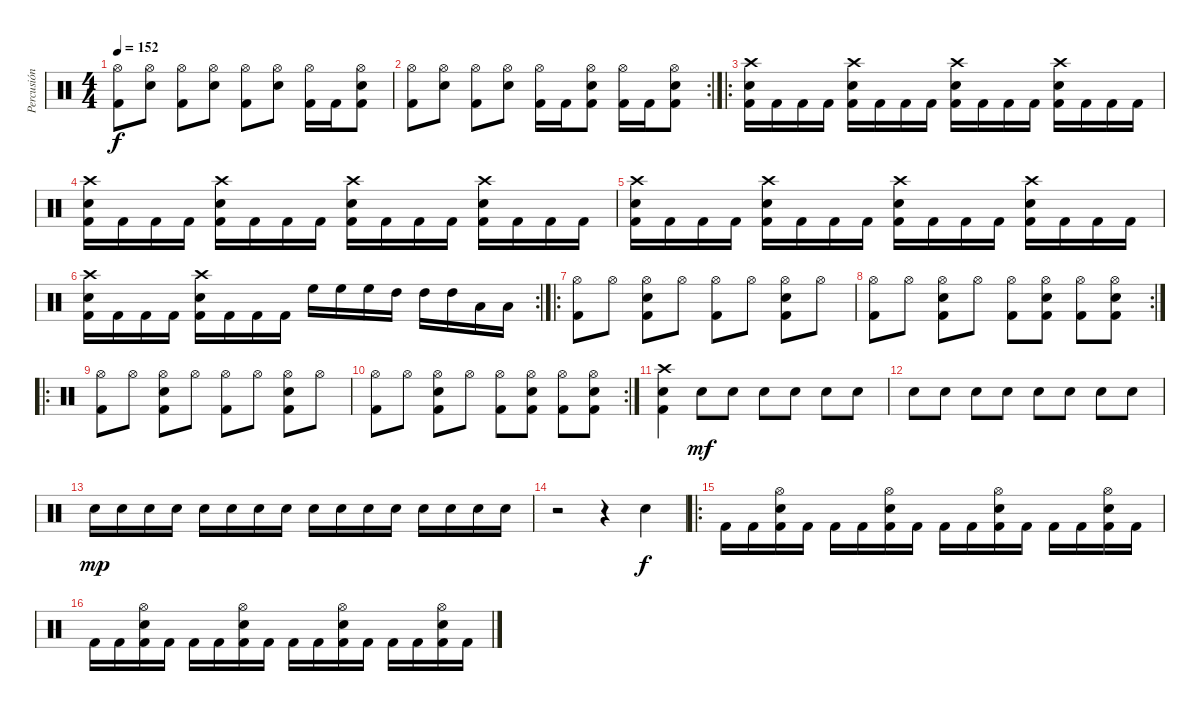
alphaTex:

\track ("Percusión" "Percusión") {instrument percussion}
\staff {score}
\articulation defaults
\ts (4 4)
\tempo 152
\clef neutral
\ks c
("Hi-Hat (open)" "Kick (hit) 2").8{dy f} ("Hi-Hat (open)" "Snare (hit) 2").8 ("Hi-Hat (open)" "Kick (hit) 2").8 ("Hi-Hat (open)" "Snare (hit) 2").8 ("Hi-Hat (open)" "Kick (hit) 2").8 ("Hi-Hat (open)" "Snare (hit) 2").8 ("Hi-Hat (open)" "Kick (hit) 2").16 "Kick (hit) 2".16 ("Hi-Hat (open)" "Snare (hit) 2" "Kick (hit) 2").8 |
\rc 2
("Hi-Hat (open)" "Kick (hit) 2").8 ("Hi-Hat (open)" "Snare (hit) 2").8 ("Hi-Hat (open)" "Kick (hit) 2").8 ("Hi-Hat (open)" "Snare (hit) 2").8 ("Hi-Hat (open)" "Kick (hit) 2").16 "Kick (hit) 2".16 ("Hi-Hat (open)" "Snare (hit) 2" "Kick (hit) 2").8 ("Hi-Hat (open)" "Kick (hit) 2").16 "Kick (hit) 2".16 ("Hi-Hat (open)" "Snare (hit) 2" "Kick (hit) 2").8 |
\ro
("Crash high (hit)" "Snare (hit) 2" "Kick (hit) 2").16 "Kick (hit) 2".16 "Kick (hit) 2".16 "Kick (hit) 2".16 ("Crash high (hit)" "Snare (hit) 2" "Kick (hit) 2").16 "Kick (hit) 2".16 "Kick (hit) 2".16 "Kick (hit) 2".16 ("Crash high (hit)" "Snare (hit) 2" "Kick (hit) 2").16 "Kick (hit) 2".16 "Kick (hit) 2".16 "Kick (hit) 2".16 ("Crash high (hit)" "Snare (hit) 2" "Kick (hit) 2").16 "Kick (hit) 2".16 "Kick (hit) 2".16 "Kick (hit) 2".16 |
("Crash high (hit)" "Snare (hit) 2" "Kick (hit) 2").16 "Kick (hit) 2".16 "Kick (hit) 2".16 "Kick (hit) 2".16 ("Crash high (hit)" "Snare (hit) 2" "Kick (hit) 2").16 "Kick (hit) 2".16 "Kick (hit) 2".16 "Kick (hit) 2".16 ("Crash high (hit)" "Snare (hit) 2" "Kick (hit) 2").16 "Kick (hit) 2".16 "Kick (hit) 2".16 "Kick (hit) 2".16 ("Crash high (hit)" "Snare (hit) 2" "Kick (hit) 2").16 "Kick (hit) 2".16 "Kick (hit) 2".16 "Kick (hit) 2".16 |
("Crash high (hit)" "Snare (hit) 2" "Kick (hit) 2").16 "Kick (hit) 2".16 "Kick (hit) 2".16 "Kick (hit) 2".16 ("Crash high (hit)" "Snare (hit) 2" "Kick (hit) 2").16 "Kick (hit) 2".16 "Kick (hit) 2".16 "Kick (hit) 2".16 ("Crash high (hit)" "Snare (hit) 2" "Kick (hit) 2").16 "Kick (hit) 2".16 "Kick (hit) 2".16 "Kick (hit) 2".16 ("Crash high (hit)" "Snare (hit) 2" "Kick (hit) 2").16 "Kick (hit) 2".16 "Kick (hit) 2".16 "Kick (hit) 2".16 |
\rc 2
("Crash high (hit)" "Snare (hit) 2" "Kick (hit) 2").16 "Kick (hit) 2".16 "Kick (hit) 2".16 "Kick (hit) 2".16 ("Crash high (hit)" "Snare (hit) 2" "Kick (hit) 2").16 "Kick (hit) 2".16 "Kick (hit) 2".16 "Kick (hit) 2".16 "High Floor Tom (hit)".16 "High Floor Tom (hit)".16 "High Floor Tom (hit)".16 "High Tom (hit)".16 "High Tom (hit)".16 "High Tom (hit)".16 "Low Floor Tom (hit)".16 "Low Floor Tom (hit)".16 |
\ro
("Hi-Hat (open)" "Kick (hit) 2").8 "Hi-Hat (open)".8 ("Hi-Hat (open)" "Snare (hit) 2" "Kick (hit) 2").8 "Hi-Hat (open)".8 ("Hi-Hat (open)" "Kick (hit) 2").8 "Hi-Hat (open)".8 ("Hi-Hat (open)" "Snare (hit) 2" "Kick (hit) 2").8 "Hi-Hat (open)".8 |
\rc 2
("Hi-Hat (open)" "Kick (hit) 2").8 "Hi-Hat (open)".8 ("Hi-Hat (open)" "Snare (hit) 2" "Kick (hit) 2").8 "Hi-Hat (open)".8 ("Hi-Hat (open)" "Kick (hit) 2").8 ("Hi-Hat (open)" "Snare (hit) 2" "Kick (hit) 2").8 ("Hi-Hat (open)" "Kick (hit) 2").8 ("Hi-Hat (open)" "Snare (hit) 2" "Kick (hit) 2").8 |
\ro
("Hi-Hat (open)" "Kick (hit) 2").8 "Hi-Hat (open)".8 ("Hi-Hat (open)" "Snare (hit) 2" "Kick (hit) 2").8 "Hi-Hat (open)".8 ("Hi-Hat (open)" "Kick (hit) 2").8 "Hi-Hat (open)".8 ("Hi-Hat (open)" "Snare (hit) 2" "Kick (hit) 2").8 "Hi-Hat (open)".8 |
\rc 2
("Hi-Hat (open)" "Kick (hit) 2").8 "Hi-Hat (open)".8 ("Hi-Hat (open)" "Snare (hit) 2" "Kick (hit) 2").8 "Hi-Hat (open)".8 ("Hi-Hat (open)" "Kick (hit) 2").8 ("Hi-Hat (open)" "Snare (hit) 2" "Kick (hit) 2").8 ("Hi-Hat (open)" "Kick (hit) 2").8 ("Hi-Hat (open)" "Snare (hit) 2" "Kick (hit) 2").8 |
("Crash high (hit)" "Snare (hit) 2" "Kick (hit) 2").4 "Snare (hit) 2".8{dy mf} "Snare (hit) 2".8 "Snare (hit) 2".8 "Snare (hit) 2".8 "Snare (hit) 2".8 "Snare (hit) 2".8 |
"Snare (hit) 2".8 "Snare (hit) 2".8 "Snare (hit) 2".8 "Snare (hit) 2".8 "Snare (hit) 2".8 "Snare (hit) 2".8 "Snare (hit) 2".8 "Snare (hit) 2".8 |
"Snare (hit) 2".16{dy mp} "Snare (hit) 2".16 "Snare (hit) 2".16 "Snare (hit) 2".16 "Snare (hit) 2".16 "Snare (hit) 2".16 "Snare (hit) 2".16 "Snare (hit) 2".16 "Snare (hit) 2".16 "Snare (hit) 2".16 "Snare (hit) 2".16 "Snare (hit) 2".16 "Snare (hit) 2".16 "Snare (hit) 2".16 "Snare (hit) 2".16 "Snare (hit) 2".16 |
r.2 r.4 "Snare (hit) 2".4{dy f} |
\ro "Kick (hit) 2".16 "Kick (hit) 2".16
("Hi-Hat (open)" "Snare (hit) 2" "Kick (hit) 2").16 "Kick (hit) 2".16 "Kick (hit) 2".16 "Kick (hit) 2".16 ("Hi-Hat (open)" "Snare (hit) 2" "Kick (hit) 2").16 "Kick (hit) 2".16 "Kick (hit) 2".16 "Kick (hit) 2".16 ("Hi-Hat (open)" "Snare (hit) 2" "Kick (hit) 2").16 "Kick (hit) 2".16 "Kick (hit) 2".16 "Kick (hit) 2".16 ("Hi-Hat (open)" "Snare (hit) 2" "Kick (hit) 2").16 "Kick (hit) 2".16 |
"Kick (hit) 2".16 "Kick (hit) 2".16 ("Hi-Hat (open)" "Snare (hit) 2" "Kick (hit) 2").16 "Kick (hit) 2".16 "Kick (hit) 2".16 "Kick (hit) 2".16 ("Hi-Hat (open)" "Snare (hit) 2" "Kick (hit) 2").16 "Kick (hit) 2".16 "Kick (hit) 2".16 "Kick (hit) 2".16 ("Hi-Hat (open)" "Snare (hit) 2" "Kick (hit) 2").16 "Kick (hit) 2".16 "Kick (hit) 2".16 "Kick (hit) 2".16 ("Hi-Hat (open)" "Snare (hit) 2" "Kick (hit) 2").16 "Kick (hit) 2".16
